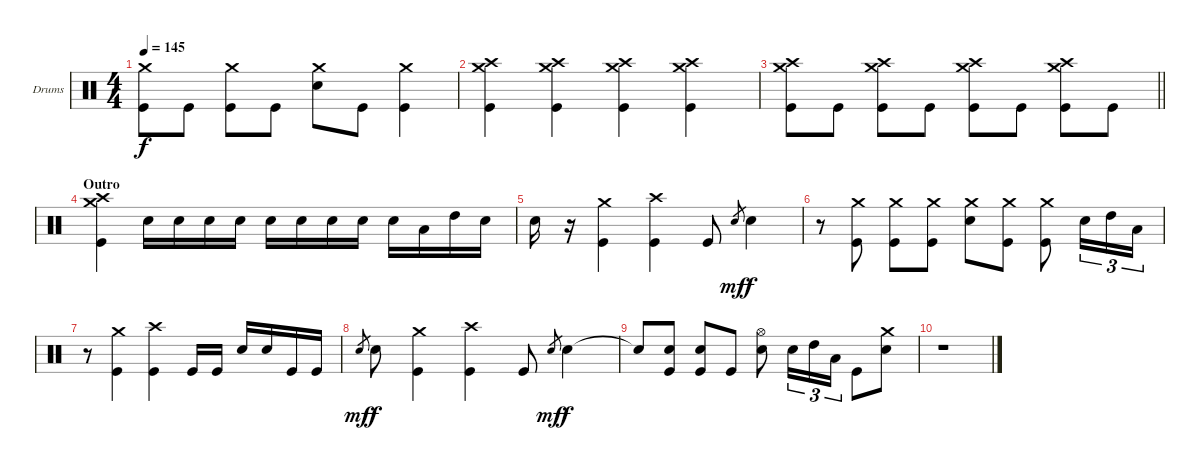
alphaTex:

\bracketExtendMode groupsimilarinstruments
\firstSystemTrackNameOrientation horizontal
\otherSystemsTrackNameOrientation horizontal
\track ("Drumkit" "Drums") {instrument percussion}
\staff {score}
\articulation defaults
\ts (4 4)
\tempo 145
\clef neutral
\ks c
("Crash medium (hit)" "Kick (hit)").8{dy f} "Kick (hit)".8 ("Crash medium (hit)" "Kick (hit)").8 "Kick (hit)".8 ("Crash medium (hit)" "Snare (hit) 2").8 "Kick (hit)".8 ("Crash medium (hit)" "Kick (hit)").4 |
("Crash medium (hit)" "Crash high (hit)" "Kick (hit)").4 ("Crash medium (hit)" "Crash high (hit)" "Kick (hit)").4 ("Crash medium (hit)" "Crash high (hit)" "Kick (hit)").4 ("Crash medium (hit)" "Crash high (hit)" "Kick (hit)").4 |
\barLineRight lightlight
("Crash medium (hit)" "Crash high (hit)" "Kick (hit)").8 "Kick (hit)".8 ("Crash medium (hit)" "Crash high (hit)" "Kick (hit)").8 "Kick (hit)".8 ("Crash medium (hit)" "Crash high (hit)" "Kick (hit)").8 "Kick (hit)".8 ("Crash medium (hit)" "Crash high (hit)" "Kick (hit)").8 "Kick (hit)".8 |
\section ("" "Outro")
("Crash medium (hit)" "Crash high (hit)" "Kick (hit)").4 "Snare (hit) 2".16 "Snare (hit) 2".16 "Snare (hit) 2".16 "Snare (hit) 2".16 "Snare (hit) 2".16 "Snare (hit) 2".16 "Snare (hit) 2".16 "Snare (hit) 2".16 "Snare (hit) 2".16 "Low Tom (hit)".16 "High Tom (hit)".16 "Snare (hit) 2".16 |
"Snare (hit) 2".16 r.16 ("Crash medium (hit)" "Kick (hit)").4 ("Crash high (hit)" "Kick (hit)").4 "Kick (hit)".8 "Snare (hit) 2".8{gr dy mf} "Snare (hit) 2".4{dy f} |
r.8 ("Crash medium (hit)" "Kick (hit)").8 ("Crash medium (hit)" "Kick (hit)").8 ("Crash medium (hit)" "Kick (hit)").8 ("Crash medium (hit)" "Snare (hit) 2").8 ("Crash medium (hit)" "Kick (hit)").8 ("Crash medium (hit)" "Kick (hit)").8 "Snare (hit) 2".16{tu (3 2)} "High Tom (hit)".16{tu (3 2)} "Low Tom (hit)".16{tu (3 2)} |
r.8 ("Crash medium (hit)" "Kick (hit)").4 ("Crash high (hit)" "Kick (hit)").4 "Kick (hit)".16 "Kick (hit)".16 "Snare (hit) 2".16 "Snare (hit) 2".16 "Kick (hit)".16 "Kick (hit)".16 |
"Snare (hit) 2".8{gr dy mf} "Snare (hit) 2".8{dy f} ("Crash medium (hit)" "Kick (hit)").4 ("Crash high (hit)" "Kick (hit)").4 "Kick (hit)".8 "Snare (hit) 2".8{gr dy mf} "Snare (hit) 2".4{dy f} |
"Snare (hit) 2"{t}.8 ("Snare (hit) 2" "Kick (hit)").8 ("Snare (hit) 2" "Kick (hit)").8 "Kick (hit)".8 ("Hi-Hat (open)" "Snare (hit) 2").8 "Snare (hit) 2".16{tu (3 2)} "High Tom (hit)".16{tu (3 2)} "Low Tom (hit)".16{tu (3 2)} "Kick (hit)".8 ("Crash medium (hit)" "Snare (hit) 2").8 |
r.1
